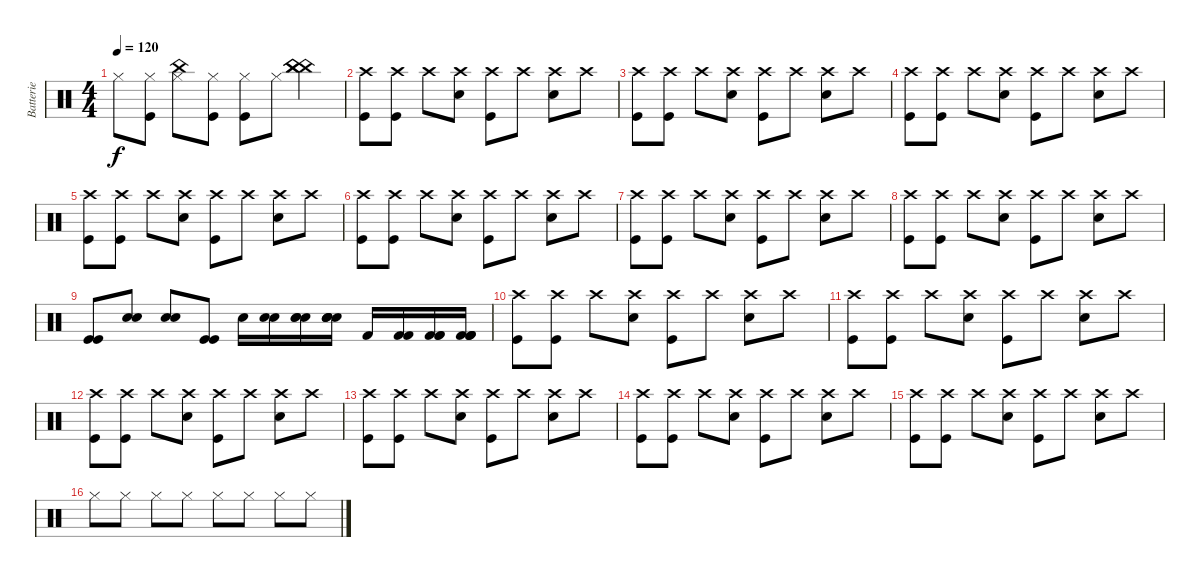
\track ("Batterie" "Batterie") {instrument percussion}
\staff {score}
\articulation defaults
\ts (4 4)
\tempo 120
\clef neutral
\ks c "Hi-Hat (closed)".8{dy f}
("Hi-Hat (closed)" "Kick (hit)").8 ("Hi-Hat (closed)" "China (hit)").8 ("Hi-Hat (closed)" "Kick (hit)").8 ("Hi-Hat (closed)" "Kick (hit)").8 "Hi-Hat (closed)".8 ("China (hit)" "China (hit)" "China (hit)").4 |
("Crash high (hit)" "Kick (hit)").8 ("Crash high (hit)" "Kick (hit)").8 "Crash high (hit)".8 ("Crash high (hit)" "Snare (hit) 2").8 ("Crash high (hit)" "Kick (hit)").8 "Crash high (hit)".8 ("Crash high (hit)" "Snare (hit) 2").8 "Crash high (hit)".8 |
("Crash high (hit)" "Kick (hit)").8 ("Crash high (hit)" "Kick (hit)").8 "Crash high (hit)".8 ("Crash high (hit)" "Snare (hit) 2").8 ("Crash high (hit)" "Kick (hit)").8 "Crash high (hit)".8 ("Crash high (hit)" "Snare (hit) 2").8 "Crash high (hit)".8 |
("Crash high (hit)" "Kick (hit)").8 ("Crash high (hit)" "Kick (hit)").8 "Crash high (hit)".8 ("Crash high (hit)" "Snare (hit) 2").8 ("Crash high (hit)" "Kick (hit)").8 "Crash high (hit)".8 ("Crash high (hit)" "Snare (hit) 2").8 "Crash high (hit)".8 |
("Crash high (hit)" "Kick (hit)").8 ("Crash high (hit)" "Kick (hit)").8 "Crash high (hit)".8 ("Crash high (hit)" "Snare (hit) 2").8 ("Crash high (hit)" "Kick (hit)").8 "Crash high (hit)".8 ("Crash high (hit)" "Snare (hit) 2").8 "Crash high (hit)".8 |
("Crash high (hit)" "Kick (hit)").8 ("Crash high (hit)" "Kick (hit)").8 "Crash high (hit)".8 ("Crash high (hit)" "Snare (hit) 2").8 ("Crash high (hit)" "Kick (hit)").8 "Crash high (hit)".8 ("Crash high (hit)" "Snare (hit) 2").8 "Crash high (hit)".8 |
("Crash high (hit)" "Kick (hit)").8 ("Crash high (hit)" "Kick (hit)").8 "Crash high (hit)".8 ("Crash high (hit)" "Snare (hit) 2").8 ("Crash high (hit)" "Kick (hit)").8 "Crash high (hit)".8 ("Crash high (hit)" "Snare (hit) 2").8 "Crash high (hit)".8 |
("Crash high (hit)" "Kick (hit)").8 ("Crash high (hit)" "Kick (hit)").8 "Crash high (hit)".8 ("Crash high (hit)" "Snare (hit) 2").8 ("Crash high (hit)" "Kick (hit)").8 "Crash high (hit)".8 ("Crash high (hit)" "Snare (hit) 2").8 "Crash high (hit)".8 |
("Kick (hit)" "Kick (hit)").8 ("Snare (hit) 2" "Snare (hit) 2").8 ("Snare (hit) 2" "Snare (hit) 2").8 ("Kick (hit)" "Kick (hit)").8 "Snare (hit) 2".16 ("Snare (hit) 2" "Snare (hit) 2").16 ("Snare (hit) 2" "Snare (hit) 2" "Snare (hit) 2").16 ("Snare (hit) 2" "Snare (hit) 2" "Snare (hit) 2" "Snare (hit) 2").16 "Kick (hit) 2".16 ("Kick (hit) 2" "Kick (hit) 2").16 ("Kick (hit) 2" "Kick (hit) 2" "Kick (hit) 2").16 ("Kick (hit) 2" "Kick (hit) 2" "Kick (hit) 2" "Kick (hit) 2").16 |
("Crash high (hit)" "Kick (hit)").8 ("Crash high (hit)" "Kick (hit)").8 "Crash high (hit)".8 ("Crash high (hit)" "Snare (hit) 2").8 ("Crash high (hit)" "Kick (hit)").8 "Crash high (hit)".8 ("Crash high (hit)" "Snare (hit) 2").8 "Crash high (hit)".8 |
("Crash high (hit)" "Kick (hit)").8 ("Crash high (hit)" "Kick (hit)").8 "Crash high (hit)".8 ("Crash high (hit)" "Snare (hit) 2").8 ("Crash high (hit)" "Kick (hit)").8 "Crash high (hit)".8 ("Crash high (hit)" "Snare (hit) 2").8 "Crash high (hit)".8 |
("Crash high (hit)" "Kick (hit)").8 ("Crash high (hit)" "Kick (hit)").8 "Crash high (hit)".8 ("Crash high (hit)" "Snare (hit) 2").8 ("Crash high (hit)" "Kick (hit)").8 "Crash high (hit)".8 ("Crash high (hit)" "Snare (hit) 2").8 "Crash high (hit)".8 |
("Crash high (hit)" "Kick (hit)").8 ("Crash high (hit)" "Kick (hit)").8 "Crash high (hit)".8 ("Crash high (hit)" "Snare (hit) 2").8 ("Crash high (hit)" "Kick (hit)").8 "Crash high (hit)".8 ("Crash high (hit)" "Snare (hit) 2").8 "Crash high (hit)".8 |
("Crash high (hit)" "Kick (hit)").8 ("Crash high (hit)" "Kick (hit)").8 "Crash high (hit)".8 ("Crash high (hit)" "Snare (hit) 2").8 ("Crash high (hit)" "Kick (hit)").8 "Crash high (hit)".8 ("Crash high (hit)" "Snare (hit) 2").8 "Crash high (hit)".8 |
("Crash high (hit)" "Kick (hit)").8 ("Crash high (hit)" "Kick (hit)").8 "Crash high (hit)".8 ("Crash high (hit)" "Snare (hit) 2").8 ("Crash high (hit)" "Kick (hit)").8 "Crash high (hit)".8 ("Crash high (hit)" "Snare (hit) 2").8 "Crash high (hit)".8 |
"Hi-Hat (closed)".8 "Hi-Hat (closed)".8 "Hi-Hat (closed)".8 "Hi-Hat (closed)".8 "Hi-Hat (closed)".8 "Hi-Hat (closed)".8 "Hi-Hat (closed)".8 "Hi-Hat (closed)".8
